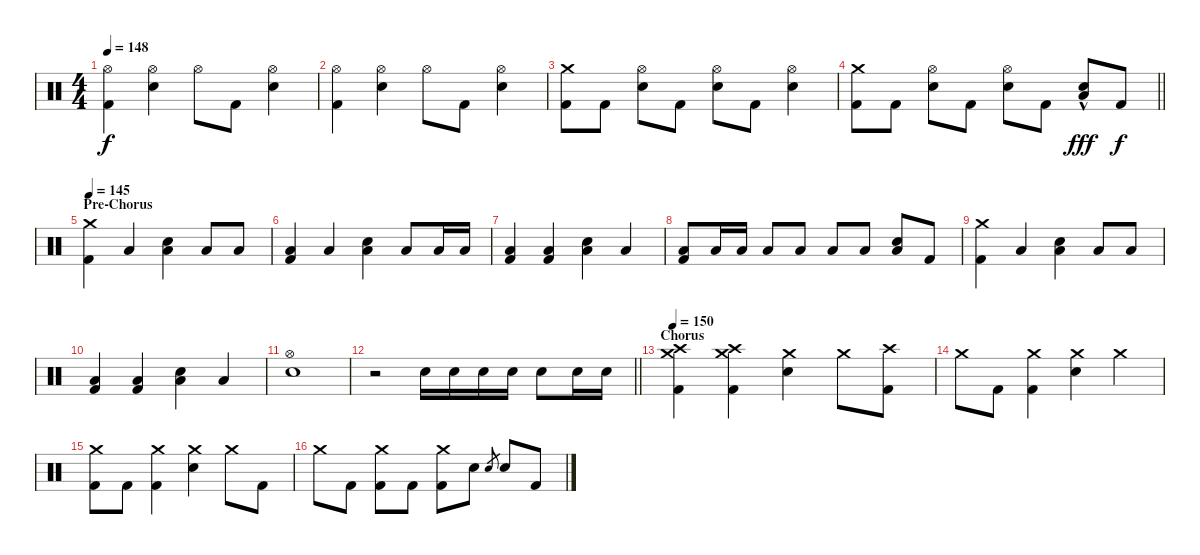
\track "" {instrument percussion}
\staff {score}
\articulation defaults
\ts (4 4)
\tempo 148
\clef neutral
\ks c
("Hi-Hat (open)" "Kick (hit) 2").4{dy f} ("Hi-Hat (open)" "Electric Snare (hit)").4 "Hi-Hat (open)".8 "Kick (hit) 2".8 ("Hi-Hat (open)" "Electric Snare (hit)").4 |
("Hi-Hat (open)" "Kick (hit) 2").4 ("Hi-Hat (open)" "Electric Snare (hit)").4 "Hi-Hat (open)".8 "Kick (hit) 2".8 ("Hi-Hat (open)" "Electric Snare (hit)").4 |
("Crash medium (hit)" "Kick (hit) 2").8 "Kick (hit) 2".8 ("Hi-Hat (open)" "Electric Snare (hit)").8 "Kick (hit) 2".8 ("Hi-Hat (open)" "Electric Snare (hit)").8 "Kick (hit) 2".8 ("Hi-Hat (open)" "Electric Snare (hit)").4 |
\barLineRight lightlight
("Crash medium (hit)" "Kick (hit) 2").8 "Kick (hit) 2".8 ("Hi-Hat (open)" "Electric Snare (hit)").8 "Kick (hit) 2".8 ("Hi-Hat (open)" "Electric Snare (hit)").8 "Kick (hit) 2".8 ("Low Floor Tom (hit)" "Electric Snare (hit)"{hac}).8{dy fff} "Kick (hit) 2".8{dy f} |
\section ("" "Pre-Chorus")
\tempo 145
("Crash medium (hit)" "Kick (hit) 2").4 "Low Floor Tom (hit)".4 ("Low Floor Tom (hit)" "Electric Snare (hit)").4 "Low Floor Tom (hit)".8 "Low Tom (hit)".8 |
("Low Floor Tom (hit)" "Kick (hit) 2").4 "Low Floor Tom (hit)".4 ("Low Floor Tom (hit)" "Electric Snare (hit)").4 "Low Floor Tom (hit)".8 "Low Tom (hit)".16 "Low Tom (hit)".16 |
("Low Floor Tom (hit)" "Kick (hit) 2").4 ("Low Floor Tom (hit)" "Kick (hit) 2").4 ("Low Floor Tom (hit)" "Electric Snare (hit)").4 "Low Floor Tom (hit)".4 |
("Low Floor Tom (hit)" "Kick (hit) 2").8 "Low Floor Tom (hit)".16 "Low Tom (hit)".16 "Low Floor Tom (hit)".8 "Low Floor Tom (hit)".8 "Low Floor Tom (hit)".8 "Low Floor Tom (hit)".8 ("Low Floor Tom (hit)" "Electric Snare (hit)").8 "Kick (hit) 2".8 |
("Crash medium (hit)" "Kick (hit) 2").4 "Low Floor Tom (hit)".4 ("Low Floor Tom (hit)" "Electric Snare (hit)").4 "Low Floor Tom (hit)".8 "Low Tom (hit)".8 |
("Low Floor Tom (hit)" "Kick (hit) 2").4 ("Low Floor Tom (hit)" "Kick (hit) 2").4 ("Low Floor Tom (hit)" "Electric Snare (hit)").4 "Low Floor Tom (hit)".4 |
("Hi-Hat (open)" "Electric Snare (hit)").1 |
\barLineRight lightlight
r.2 "Electric Snare (hit)".16 "Electric Snare (hit)".16 "Electric Snare (hit)".16 "Electric Snare (hit)".16 "Electric Snare (hit)".8 "Electric Snare (hit)".16 "Electric Snare (hit)".16 |
\section ("" "Chorus")
\tempo 150
("Crash medium (hit)" "Crash high (hit)" "Kick (hit) 2").4 ("Crash medium (hit)" "Crash high (hit)" "Kick (hit) 2").4 ("Crash medium (hit)" "Electric Snare (hit)").4 "Crash medium (hit)".8 ("Crash high (hit)" "Kick (hit) 2").8 |
"Crash medium (hit)".8 "Kick (hit) 2".8 ("Crash medium (hit)" "Kick (hit) 2").4 ("Crash medium (hit)" "Electric Snare (hit)").4 "Crash medium (hit)".4 |
("Crash medium (hit)" "Kick (hit) 2").8 "Kick (hit) 2".8 ("Crash medium (hit)" "Kick (hit) 2").4 ("Crash medium (hit)" "Electric Snare (hit)").4 "Crash medium (hit)".8 "Kick (hit) 2".8 |
"Crash medium (hit)".8 "Kick (hit) 2".8 ("Crash medium (hit)" "Kick (hit) 2").8 "Kick (hit) 2".8 ("Crash medium (hit)" "Kick (hit) 2").8 "Electric Snare (hit)".8 "Electric Snare (hit)".8{gr} "Electric Snare (hit)".8 "Kick (hit) 2".8
